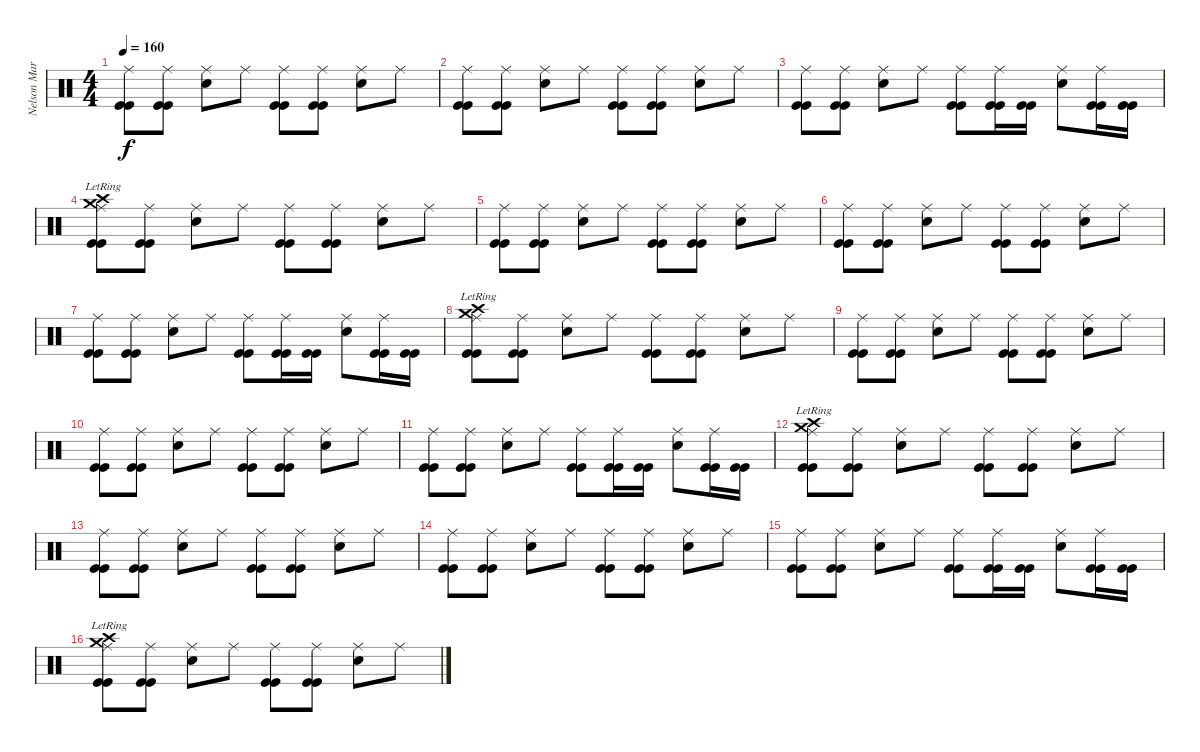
\track ("Nelson Maria" "Nelson Mar") {instrument percussion}
\staff {score}
\articulation defaults
\ts (4 4)
\tempo 160
\clef neutral
\ks c
("Ride (middle)" "Kick (hit)" "Kick (hit)").8{dy f} ("Ride (middle)" "Kick (hit)" "Kick (hit)").8 ("Snare (hit) 2" "Ride (middle)").8 "Ride (middle)".8 ("Ride (middle)" "Kick (hit)" "Kick (hit)").8 ("Ride (middle)" "Kick (hit)" "Kick (hit)").8 ("Snare (hit) 2" "Ride (middle)").8 "Ride (middle)".8 |
("Ride (middle)" "Kick (hit)" "Kick (hit)").8 ("Ride (middle)" "Kick (hit)" "Kick (hit)").8 ("Snare (hit) 2" "Ride (middle)").8 "Ride (middle)".8 ("Ride (middle)" "Kick (hit)" "Kick (hit)").8 ("Ride (middle)" "Kick (hit)" "Kick (hit)").8 ("Snare (hit) 2" "Ride (middle)").8 "Ride (middle)".8 |
("Ride (middle)" "Kick (hit)" "Kick (hit)").8 ("Ride (middle)" "Kick (hit)" "Kick (hit)").8 ("Snare (hit) 2" "Ride (middle)").8 "Ride (middle)".8 ("Ride (middle)" "Kick (hit)" "Kick (hit)").8 ("Ride (middle)" "Kick (hit)" "Kick (hit)").16 ("Kick (hit)" "Kick (hit)").16 ("Snare (hit) 2" "Ride (middle)").8 ("Ride (middle)" "Kick (hit)" "Kick (hit)").16 ("Kick (hit)" "Kick (hit)").16 |
("Crash high (hit)"{lr} "Crash medium (hit)"{lr} "Ride (middle)" "Kick (hit)" "Kick (hit)").8 ("Ride (middle)" "Kick (hit)" "Kick (hit)").8 ("Snare (hit) 2" "Ride (middle)").8 "Ride (middle)".8 ("Ride (middle)" "Kick (hit)" "Kick (hit)").8 ("Ride (middle)" "Kick (hit)" "Kick (hit)").8 ("Snare (hit) 2" "Ride (middle)").8 "Ride (middle)".8 |
("Ride (middle)" "Kick (hit)" "Kick (hit)").8 ("Ride (middle)" "Kick (hit)" "Kick (hit)").8 ("Snare (hit) 2" "Ride (middle)").8 "Ride (middle)".8 ("Ride (middle)" "Kick (hit)" "Kick (hit)").8 ("Ride (middle)" "Kick (hit)" "Kick (hit)").8 ("Snare (hit) 2" "Ride (middle)").8 "Ride (middle)".8 |
("Ride (middle)" "Kick (hit)" "Kick (hit)").8 ("Ride (middle)" "Kick (hit)" "Kick (hit)").8 ("Snare (hit) 2" "Ride (middle)").8 "Ride (middle)".8 ("Ride (middle)" "Kick (hit)" "Kick (hit)").8 ("Ride (middle)" "Kick (hit)" "Kick (hit)").8 ("Snare (hit) 2" "Ride (middle)").8 "Ride (middle)".8 |
("Ride (middle)" "Kick (hit)" "Kick (hit)").8 ("Ride (middle)" "Kick (hit)" "Kick (hit)").8 ("Snare (hit) 2" "Ride (middle)").8 "Ride (middle)".8 ("Ride (middle)" "Kick (hit)" "Kick (hit)").8 ("Ride (middle)" "Kick (hit)" "Kick (hit)").16 ("Kick (hit)" "Kick (hit)").16 ("Snare (hit) 2" "Ride (middle)").8 ("Ride (middle)" "Kick (hit)" "Kick (hit)").16 ("Kick (hit)" "Kick (hit)").16 |
("Crash high (hit)"{lr} "Crash medium (hit)"{lr} "Ride (middle)" "Kick (hit)" "Kick (hit)").8 ("Ride (middle)" "Kick (hit)" "Kick (hit)").8 ("Snare (hit) 2" "Ride (middle)").8 "Ride (middle)".8 ("Ride (middle)" "Kick (hit)" "Kick (hit)").8 ("Ride (middle)" "Kick (hit)" "Kick (hit)").8 ("Snare (hit) 2" "Ride (middle)").8 "Ride (middle)".8 |
("Ride (middle)" "Kick (hit)" "Kick (hit)").8 ("Ride (middle)" "Kick (hit)" "Kick (hit)").8 ("Snare (hit) 2" "Ride (middle)").8 "Ride (middle)".8 ("Ride (middle)" "Kick (hit)" "Kick (hit)").8 ("Ride (middle)" "Kick (hit)" "Kick (hit)").8 ("Snare (hit) 2" "Ride (middle)").8 "Ride (middle)".8 |
("Ride (middle)" "Kick (hit)" "Kick (hit)").8 ("Ride (middle)" "Kick (hit)" "Kick (hit)").8 ("Snare (hit) 2" "Ride (middle)").8 "Ride (middle)".8 ("Ride (middle)" "Kick (hit)" "Kick (hit)").8 ("Ride (middle)" "Kick (hit)" "Kick (hit)").8 ("Snare (hit) 2" "Ride (middle)").8 "Ride (middle)".8 |
("Ride (middle)" "Kick (hit)" "Kick (hit)").8 ("Ride (middle)" "Kick (hit)" "Kick (hit)").8 ("Snare (hit) 2" "Ride (middle)").8 "Ride (middle)".8 ("Ride (middle)" "Kick (hit)" "Kick (hit)").8 ("Ride (middle)" "Kick (hit)" "Kick (hit)").16 ("Kick (hit)" "Kick (hit)").16 ("Snare (hit) 2" "Ride (middle)").8 ("Ride (middle)" "Kick (hit)" "Kick (hit)").16 ("Kick (hit)" "Kick (hit)").16 |
("Crash high (hit)"{lr} "Crash medium (hit)"{lr} "Ride (middle)" "Kick (hit)" "Kick (hit)").8 ("Ride (middle)" "Kick (hit)" "Kick (hit)").8 ("Snare (hit) 2" "Ride (middle)").8 "Ride (middle)".8 ("Ride (middle)" "Kick (hit)" "Kick (hit)").8 ("Ride (middle)" "Kick (hit)" "Kick (hit)").8 ("Snare (hit) 2" "Ride (middle)").8 "Ride (middle)".8 |
("Ride (middle)" "Kick (hit)" "Kick (hit)").8 ("Ride (middle)" "Kick (hit)" "Kick (hit)").8 ("Snare (hit) 2" "Ride (middle)").8 "Ride (middle)".8 ("Ride (middle)" "Kick (hit)" "Kick (hit)").8 ("Ride (middle)" "Kick (hit)" "Kick (hit)").8 ("Snare (hit) 2" "Ride (middle)").8 "Ride (middle)".8 |
("Ride (middle)" "Kick (hit)" "Kick (hit)").8 ("Ride (middle)" "Kick (hit)" "Kick (hit)").8 ("Snare (hit) 2" "Ride (middle)").8 "Ride (middle)".8 ("Ride (middle)" "Kick (hit)" "Kick (hit)").8 ("Ride (middle)" "Kick (hit)" "Kick (hit)").8 ("Snare (hit) 2" "Ride (middle)").8 "Ride (middle)".8 |
("Ride (middle)" "Kick (hit)" "Kick (hit)").8 ("Ride (middle)" "Kick (hit)" "Kick (hit)").8 ("Snare (hit) 2" "Ride (middle)").8 "Ride (middle)".8 ("Ride (middle)" "Kick (hit)" "Kick (hit)").8 ("Ride (middle)" "Kick (hit)" "Kick (hit)").16 ("Kick (hit)" "Kick (hit)").16 ("Snare (hit) 2" "Ride (middle)").8 ("Ride (middle)" "Kick (hit)" "Kick (hit)").16 ("Kick (hit)" "Kick (hit)").16 |
("Crash high (hit)"{lr} "Crash medium (hit)"{lr} "Ride (middle)" "Kick (hit)" "Kick (hit)").8 ("Ride (middle)" "Kick (hit)" "Kick (hit)").8 ("Snare (hit) 2" "Ride (middle)").8 "Ride (middle)".8 ("Ride (middle)" "Kick (hit)" "Kick (hit)").8 ("Ride (middle)" "Kick (hit)" "Kick (hit)").8 ("Snare (hit) 2" "Ride (middle)").8 "Ride (middle)".8
